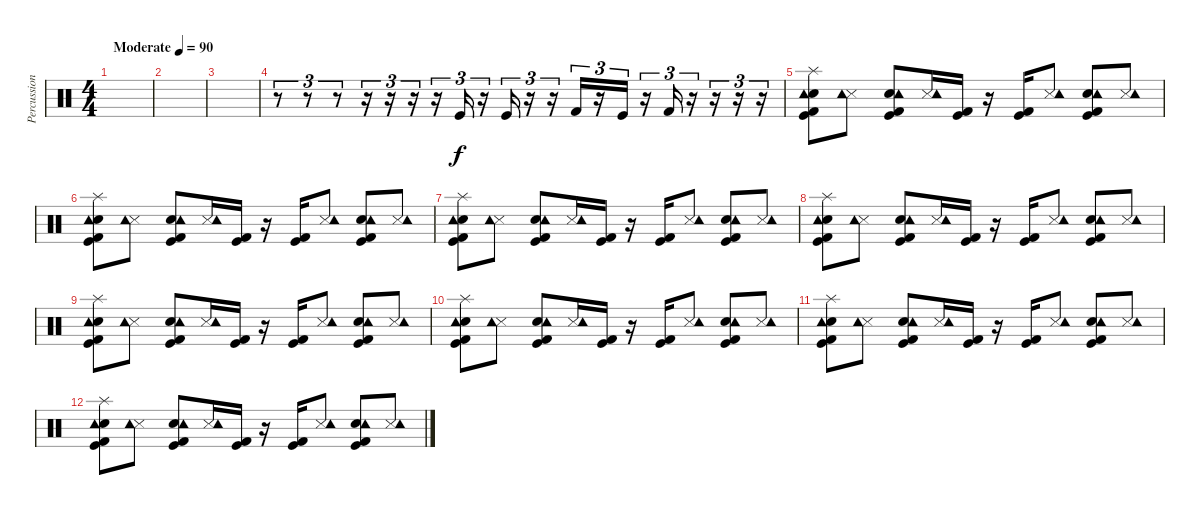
\track ("Percussion" "Percussion") {instrument percussion}
\staff {score}
\articulation defaults
\ts (4 4)
\tempo (90 "Moderate")
\clef neutral
\ks c
|
|
|
r.8{tu (3 2)} r.8{tu (3 2)} r.8{tu (3 2)} r.16{tu (3 2)} r.16{tu (3 2)} r.16{tu (3 2)} r.16{tu (3 2)} "Kick (hit)".16{tu (3 2)} r.16{tu (3 2)} "Kick (hit)".16{tu (3 2)} r.16{tu (3 2)} r.16{tu (3 2)} "Kick (hit) 2".16{tu (3 2)} r.16{tu (3 2)} "Kick (hit)".16{tu (3 2)} r.16{tu (3 2)} "Kick (hit) 2".16{tu (3 2)} r.16{tu (3 2)} r.16{tu (3 2)} r.16{tu (3 2)} r.16{tu (3 2)} |
("Kick (hit) 2" "Metronome (bell)" "Kick (hit)" "Tambourine (hit)" "Splash (hit)").8 ("Metronome (hit)" "Tambourine (hit)").8 ("Kick (hit) 2" "Kick (hit)" "Hand Clap (hit)" "Tambourine (hit)").8 ("Metronome (hit)" "Tambourine (hit)").16 ("Kick (hit) 2" "Kick (hit)").16 r.16 ("Kick (hit) 2" "Kick (hit)").16 ("Metronome (hit)" "Tambourine (hit)").8 ("Kick (hit) 2" "Kick (hit)" "Hand Clap (hit)" "Tambourine (hit)").8 ("Metronome (hit)" "Tambourine (hit)").8 |
("Kick (hit) 2" "Metronome (bell)" "Kick (hit)" "Tambourine (hit)" "Splash (hit)").8 ("Metronome (hit)" "Tambourine (hit)").8 ("Kick (hit) 2" "Kick (hit)" "Hand Clap (hit)" "Tambourine (hit)").8 ("Metronome (hit)" "Tambourine (hit)").16 ("Kick (hit) 2" "Kick (hit)").16 r.16 ("Kick (hit) 2" "Kick (hit)").16 ("Metronome (hit)" "Tambourine (hit)").8 ("Kick (hit) 2" "Kick (hit)" "Hand Clap (hit)" "Tambourine (hit)").8 ("Metronome (hit)" "Tambourine (hit)").8 |
("Kick (hit) 2" "Metronome (bell)" "Kick (hit)" "Tambourine (hit)" "Splash (hit)").8 ("Metronome (hit)" "Tambourine (hit)").8 ("Kick (hit) 2" "Kick (hit)" "Hand Clap (hit)" "Tambourine (hit)").8 ("Metronome (hit)" "Tambourine (hit)").16 ("Kick (hit) 2" "Kick (hit)").16 r.16 ("Kick (hit) 2" "Kick (hit)").16 ("Metronome (hit)" "Tambourine (hit)").8 ("Kick (hit) 2" "Kick (hit)" "Hand Clap (hit)" "Tambourine (hit)").8 ("Metronome (hit)" "Tambourine (hit)").8 |
("Kick (hit) 2" "Metronome (bell)" "Kick (hit)" "Tambourine (hit)" "Splash (hit)").8 ("Metronome (hit)" "Tambourine (hit)").8 ("Kick (hit) 2" "Kick (hit)" "Hand Clap (hit)" "Tambourine (hit)").8 ("Metronome (hit)" "Tambourine (hit)").16 ("Kick (hit) 2" "Kick (hit)").16 r.16 ("Kick (hit) 2" "Kick (hit)").16 ("Metronome (hit)" "Tambourine (hit)").8 ("Kick (hit) 2" "Kick (hit)" "Hand Clap (hit)" "Tambourine (hit)").8 ("Metronome (hit)" "Tambourine (hit)").8 |
("Kick (hit) 2" "Metronome (bell)" "Kick (hit)" "Tambourine (hit)" "Splash (hit)").8 ("Metronome (hit)" "Tambourine (hit)").8 ("Kick (hit) 2" "Kick (hit)" "Hand Clap (hit)" "Tambourine (hit)").8 ("Metronome (hit)" "Tambourine (hit)").16 ("Kick (hit) 2" "Kick (hit)").16 r.16 ("Kick (hit) 2" "Kick (hit)").16 ("Metronome (hit)" "Tambourine (hit)").8 ("Kick (hit) 2" "Kick (hit)" "Hand Clap (hit)" "Tambourine (hit)").8 ("Metronome (hit)" "Tambourine (hit)").8 |
("Kick (hit) 2" "Metronome (bell)" "Kick (hit)" "Tambourine (hit)" "Splash (hit)").8 ("Metronome (hit)" "Tambourine (hit)").8 ("Kick (hit) 2" "Kick (hit)" "Hand Clap (hit)" "Tambourine (hit)").8 ("Metronome (hit)" "Tambourine (hit)").16 ("Kick (hit) 2" "Kick (hit)").16 r.16 ("Kick (hit) 2" "Kick (hit)").16 ("Metronome (hit)" "Tambourine (hit)").8 ("Kick (hit) 2" "Kick (hit)" "Hand Clap (hit)" "Tambourine (hit)").8 ("Metronome (hit)" "Tambourine (hit)").8 |
("Kick (hit) 2" "Metronome (bell)" "Kick (hit)" "Tambourine (hit)" "Splash (hit)").8 ("Metronome (hit)" "Tambourine (hit)").8 ("Kick (hit) 2" "Kick (hit)" "Hand Clap (hit)" "Tambourine (hit)").8 ("Metronome (hit)" "Tambourine (hit)").16 ("Kick (hit) 2" "Kick (hit)").16 r.16 ("Kick (hit) 2" "Kick (hit)").16 ("Metronome (hit)" "Tambourine (hit)").8 ("Kick (hit) 2" "Kick (hit)" "Hand Clap (hit)" "Tambourine (hit)").8 ("Metronome (hit)" "Tambourine (hit)").8 |
("Kick (hit) 2" "Metronome (bell)" "Kick (hit)" "Tambourine (hit)" "Splash (hit)").8 ("Metronome (hit)" "Tambourine (hit)").8 ("Kick (hit) 2" "Kick (hit)" "Hand Clap (hit)" "Tambourine (hit)").8 ("Metronome (hit)" "Tambourine (hit)").16 ("Kick (hit) 2" "Kick (hit)").16 r.16 ("Kick (hit) 2" "Kick (hit)").16 ("Metronome (hit)" "Tambourine (hit)").8 ("Kick (hit) 2" "Kick (hit)" "Hand Clap (hit)" "Tambourine (hit)").8 ("Metronome (hit)" "Tambourine (hit)").8
